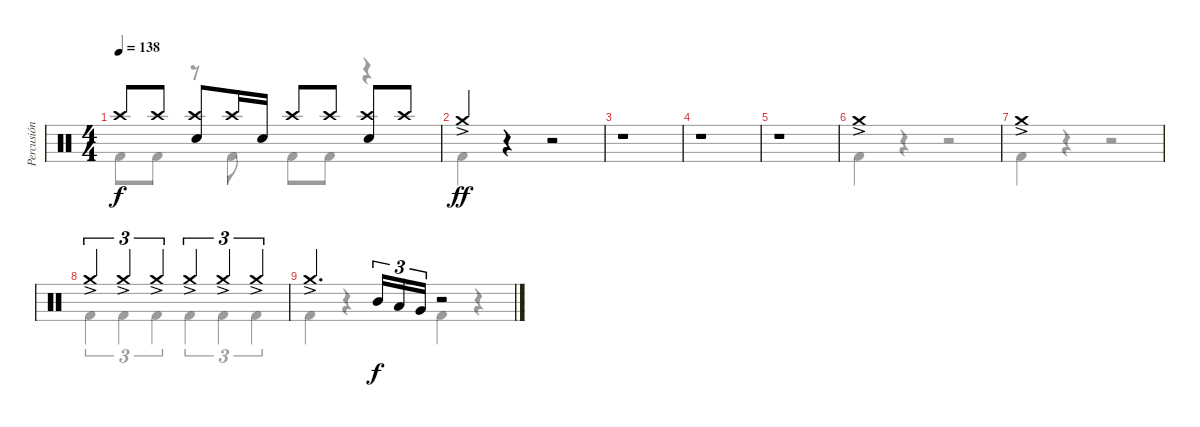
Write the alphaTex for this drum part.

\track ("Percusión" "Percusión") {instrument percussion}
\staff {score}
\articulation defaults
\voice
\ts (4 4)
\tempo 138
\clef neutral
\ks c "Crash high (hit)".8{dy f} "Crash high (hit)".8
("Electric Snare (hit)" "Crash high (hit)").8 "Crash high (hit)".16 "Electric Snare (hit)".16 "Crash high (hit)".8 "Crash high (hit)".8 ("Electric Snare (hit)" "Crash high (hit)").8 "Crash high (hit)".8 |
"Crash medium (hit)"{ac}.4{dy ff} r.4 r.2 |
r.1 |
r.1 |
r.1 |
"Crash medium (hit)"{ac}.1 |
"Crash medium (hit)"{ac}.1 |
"Crash medium (hit)"{ac}.4{tu (3 2)} "Crash medium (hit)"{ac}.4{tu (3 2)} "Crash medium (hit)"{ac}.4{tu (3 2)} "Crash medium (hit)"{ac}.4{tu (3 2)} "Crash medium (hit)"{ac}.4{tu (3 2)} "Crash medium (hit)"{ac}.4{tu (3 2)} |
"Crash medium (hit)"{ac}.4{d} "Mid Tom (hit)".16{tu (3 2) dy f} "Low Tom (hit)".16{tu (3 2)} "Very Low Tom (hit)".16{tu (3 2)} r.2
\voice
\clef neutral
\ottava regular
\simile none
\ks c "Kick (hit) 2".8{dy f} "Kick (hit) 2".8
r.8 "Kick (hit) 2".8 "Kick (hit) 2".8 "Kick (hit) 2".8 r.4 |
"Kick (hit) 2".4 r.4 r.2 |
r.1 |
r.1 |
r.1 |
"Kick (hit) 2".4 r.4 r.2 |
"Kick (hit) 2".4 r.4 r.2 |
"Kick (hit) 2".4{tu (3 2)} "Kick (hit) 2".4{tu (3 2)} "Kick (hit) 2".4{tu (3 2)} "Kick (hit) 2".4{tu (3 2)} "Kick (hit) 2".4{tu (3 2)} "Kick (hit) 2".4{tu (3 2)} |
"Kick (hit) 2".4 r.4 "Kick (hit) 2".4 r.4
